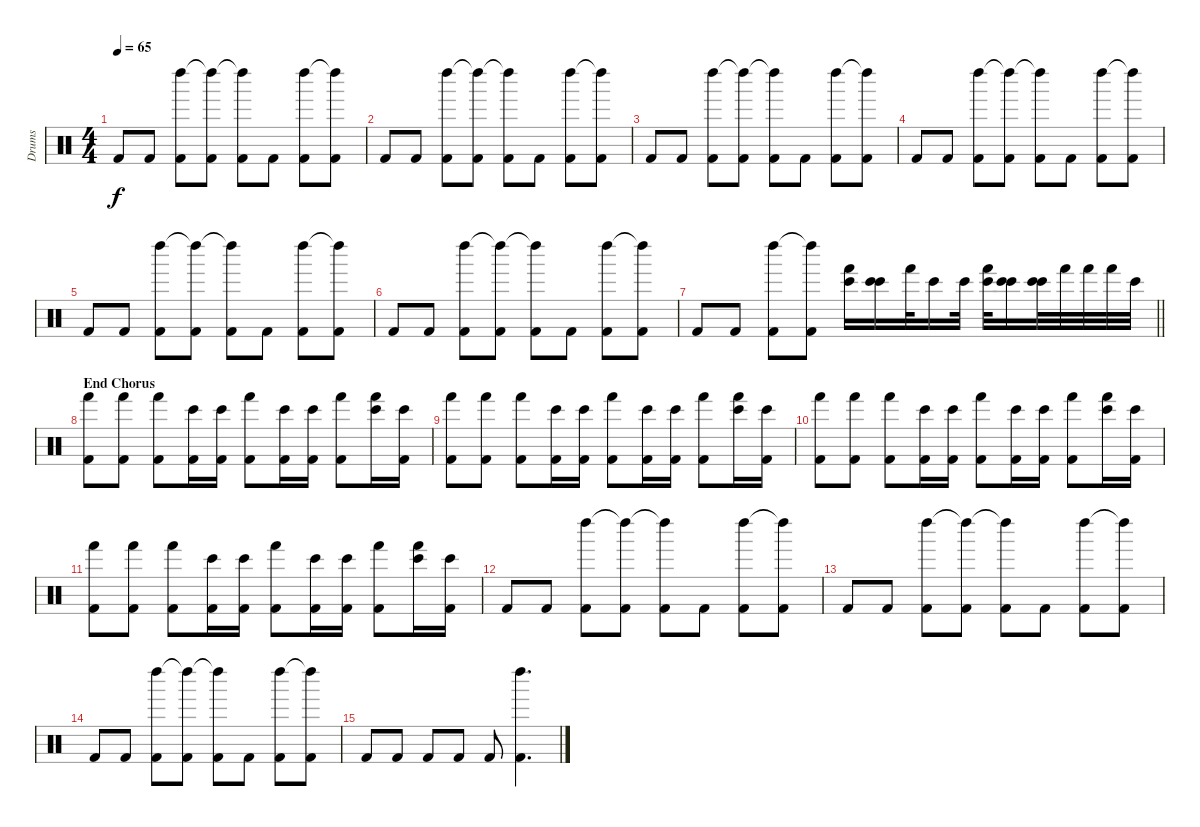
\track ("Drums" "Drums") {instrument percussion}
\staff {score}
\articulation defaults
\ts (4 4)
\tempo 65
\clef neutral
\ks c "Kick (hit) 2".8{dy f} "Kick (hit) 2".8
("Left Maraca (hit)" "Kick (hit) 2").8 ("Left Maraca (hit)"{t} "Kick (hit) 2").8 ("Left Maraca (hit)"{t} "Kick (hit) 2").8 "Kick (hit) 2".8 ("Left Maraca (hit)" "Kick (hit) 2").8 ("Left Maraca (hit)"{t} "Kick (hit) 2").8 |
"Kick (hit) 2".8 "Kick (hit) 2".8 ("Left Maraca (hit)" "Kick (hit) 2").8 ("Left Maraca (hit)"{t} "Kick (hit) 2").8 ("Left Maraca (hit)"{t} "Kick (hit) 2").8 "Kick (hit) 2".8 ("Left Maraca (hit)" "Kick (hit) 2").8 ("Left Maraca (hit)"{t} "Kick (hit) 2").8 |
"Kick (hit) 2".8 "Kick (hit) 2".8 ("Left Maraca (hit)" "Kick (hit) 2").8 ("Left Maraca (hit)"{t} "Kick (hit) 2").8 ("Left Maraca (hit)"{t} "Kick (hit) 2").8 "Kick (hit) 2".8 ("Left Maraca (hit)" "Kick (hit) 2").8 ("Left Maraca (hit)"{t} "Kick (hit) 2").8 |
"Kick (hit) 2".8 "Kick (hit) 2".8 ("Left Maraca (hit)" "Kick (hit) 2").8 ("Left Maraca (hit)"{t} "Kick (hit) 2").8 ("Left Maraca (hit)"{t} "Kick (hit) 2").8 "Kick (hit) 2".8 ("Left Maraca (hit)" "Kick (hit) 2").8 ("Left Maraca (hit)"{t} "Kick (hit) 2").8 |
"Kick (hit) 2".8 "Kick (hit) 2".8 ("Left Maraca (hit)" "Kick (hit) 2").8 ("Left Maraca (hit)"{t} "Kick (hit) 2").8 ("Left Maraca (hit)"{t} "Kick (hit) 2").8 "Kick (hit) 2".8 ("Left Maraca (hit)" "Kick (hit) 2").8 ("Left Maraca (hit)"{t} "Kick (hit) 2").8 |
"Kick (hit) 2".8 "Kick (hit) 2".8 ("Left Maraca (hit)" "Kick (hit) 2").8 ("Left Maraca (hit)"{t} "Kick (hit) 2").8 ("Left Maraca (hit)"{t} "Kick (hit) 2").8 "Kick (hit) 2".8 ("Left Maraca (hit)" "Kick (hit) 2").8 ("Left Maraca (hit)"{t} "Kick (hit) 2").8 |
\barLineRight lightlight "Kick (hit) 2".8 "Kick (hit) 2".8
("Left Maraca (hit)" "Kick (hit) 2").8 ("Left Maraca (hit)"{t} "Kick (hit) 2").8 ("Hand (hit)" "Bongo High (hit)").16 ("Bongo High (hit)" "Bongo High (hit)").16 "Hand (hit)".32 "Bongo High (hit)".16 "Bongo High (hit)".32 ("Bongo High (hit)" "Hand (hit)").32 ("Bongo High (hit)" "Bongo High (hit)").16 ("Bongo High (hit)" "Bongo High (hit)").32 "Hand (hit)".32 "Hand (hit)".32 "Hand (hit)".32 "Bongo High (hit)".32 |
\section ("" "End Chorus")
("Hand (hit)" "Kick (hit) 2").8 ("Hand (hit)" "Kick (hit) 2").8 ("Hand (hit)" "Kick (hit) 2").8 ("Bongo High (hit)" "Kick (hit) 2").16 ("Bongo High (hit)" "Kick (hit) 2").16 ("Hand (hit)" "Kick (hit) 2").8 ("Bongo High (hit)" "Kick (hit) 2").16 ("Bongo High (hit)" "Kick (hit) 2").16 ("Hand (hit)" "Kick (hit) 2").8 ("Bongo High (hit)" "Hand (hit)").16 ("Bongo High (hit)" "Kick (hit) 2").16 |
("Hand (hit)" "Kick (hit) 2").8 ("Hand (hit)" "Kick (hit) 2").8 ("Hand (hit)" "Kick (hit) 2").8 ("Bongo High (hit)" "Kick (hit) 2").16 ("Bongo High (hit)" "Kick (hit) 2").16 ("Hand (hit)" "Kick (hit) 2").8 ("Bongo High (hit)" "Kick (hit) 2").16 ("Bongo High (hit)" "Kick (hit) 2").16 ("Hand (hit)" "Kick (hit) 2").8 ("Bongo High (hit)" "Hand (hit)").16 ("Bongo High (hit)" "Kick (hit) 2").16 |
("Hand (hit)" "Kick (hit) 2").8 ("Hand (hit)" "Kick (hit) 2").8 ("Hand (hit)" "Kick (hit) 2").8 ("Bongo High (hit)" "Kick (hit) 2").16 ("Bongo High (hit)" "Kick (hit) 2").16 ("Hand (hit)" "Kick (hit) 2").8 ("Bongo High (hit)" "Kick (hit) 2").16 ("Bongo High (hit)" "Kick (hit) 2").16 ("Hand (hit)" "Kick (hit) 2").8 ("Bongo High (hit)" "Hand (hit)").16 ("Bongo High (hit)" "Kick (hit) 2").16 |
("Hand (hit)" "Kick (hit) 2").8 ("Hand (hit)" "Kick (hit) 2").8 ("Hand (hit)" "Kick (hit) 2").8 ("Bongo High (hit)" "Kick (hit) 2").16 ("Bongo High (hit)" "Kick (hit) 2").16 ("Hand (hit)" "Kick (hit) 2").8 ("Bongo High (hit)" "Kick (hit) 2").16 ("Bongo High (hit)" "Kick (hit) 2").16 ("Hand (hit)" "Kick (hit) 2").8 ("Bongo High (hit)" "Hand (hit)").16 ("Bongo High (hit)" "Kick (hit) 2").16 |
"Kick (hit) 2".8 "Kick (hit) 2".8 ("Left Maraca (hit)" "Kick (hit) 2").8 ("Left Maraca (hit)"{t} "Kick (hit) 2").8 ("Left Maraca (hit)"{t} "Kick (hit) 2").8 "Kick (hit) 2".8 ("Left Maraca (hit)" "Kick (hit) 2").8 ("Left Maraca (hit)"{t} "Kick (hit) 2").8 |
"Kick (hit) 2".8 "Kick (hit) 2".8 ("Left Maraca (hit)" "Kick (hit) 2").8 ("Left Maraca (hit)"{t} "Kick (hit) 2").8 ("Left Maraca (hit)"{t} "Kick (hit) 2").8 "Kick (hit) 2".8 ("Left Maraca (hit)" "Kick (hit) 2").8 ("Left Maraca (hit)"{t} "Kick (hit) 2").8 |
"Kick (hit) 2".8 "Kick (hit) 2".8 ("Left Maraca (hit)" "Kick (hit) 2").8 ("Left Maraca (hit)"{t} "Kick (hit) 2").8 ("Left Maraca (hit)"{t} "Kick (hit) 2").8 "Kick (hit) 2".8 ("Left Maraca (hit)" "Kick (hit) 2").8 ("Left Maraca (hit)"{t} "Kick (hit) 2").8 |
"Kick (hit) 2".8 "Kick (hit) 2".8 "Kick (hit) 2".8 "Kick (hit) 2".8 "Kick (hit) 2".8 ("Left Maraca (hit)" "Kick (hit) 2").4{d}
